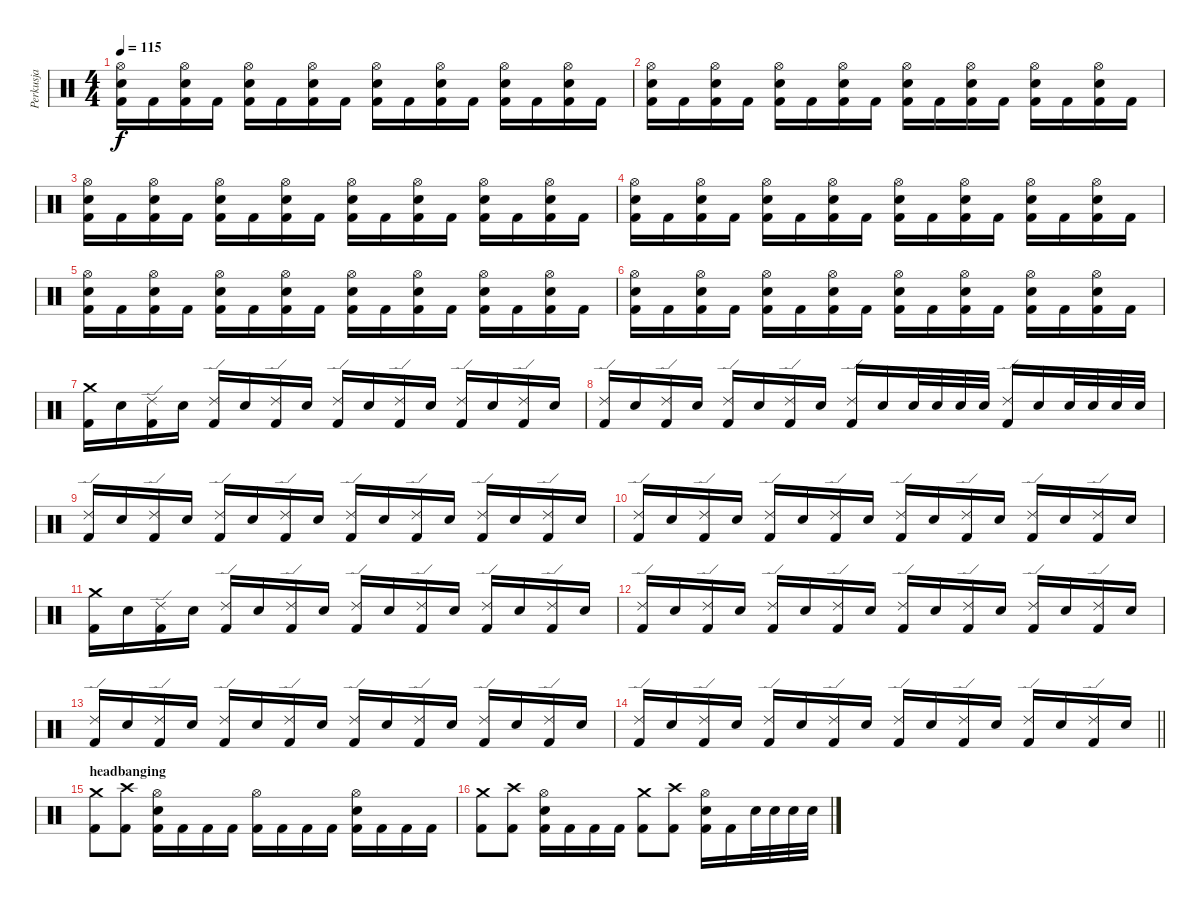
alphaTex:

\track ("Perkusja" "Perkusja") {instrument percussion}
\staff {score}
\articulation defaults
\ts (4 4)
\tempo 115
\clef neutral
\ks c
("Kick (hit) 2" "Snare (hit) 2" "Hi-Hat (open)").16{dy f} "Kick (hit) 2".16 ("Kick (hit) 2" "Hi-Hat (open)" "Snare (hit) 2").16 "Kick (hit) 2".16 ("Kick (hit) 2" "Snare (hit) 2" "Hi-Hat (open)").16 "Kick (hit) 2".16 ("Kick (hit) 2" "Hi-Hat (open)" "Snare (hit) 2").16 "Kick (hit) 2".16 ("Kick (hit) 2" "Snare (hit) 2" "Hi-Hat (open)").16 "Kick (hit) 2".16 ("Kick (hit) 2" "Hi-Hat (open)" "Snare (hit) 2").16 "Kick (hit) 2".16 ("Kick (hit) 2" "Snare (hit) 2" "Hi-Hat (open)").16 "Kick (hit) 2".16 ("Kick (hit) 2" "Hi-Hat (open)" "Snare (hit) 2").16 "Kick (hit) 2".16 |
("Kick (hit) 2" "Snare (hit) 2" "Hi-Hat (open)").16 "Kick (hit) 2".16 ("Kick (hit) 2" "Hi-Hat (open)" "Snare (hit) 2").16 "Kick (hit) 2".16 ("Kick (hit) 2" "Snare (hit) 2" "Hi-Hat (open)").16 "Kick (hit) 2".16 ("Kick (hit) 2" "Hi-Hat (open)" "Snare (hit) 2").16 "Kick (hit) 2".16 ("Kick (hit) 2" "Snare (hit) 2" "Hi-Hat (open)").16 "Kick (hit) 2".16 ("Kick (hit) 2" "Hi-Hat (open)" "Snare (hit) 2").16 "Kick (hit) 2".16 ("Kick (hit) 2" "Snare (hit) 2" "Hi-Hat (open)").16 "Kick (hit) 2".16 ("Kick (hit) 2" "Hi-Hat (open)" "Snare (hit) 2").16 "Kick (hit) 2".16 |
("Kick (hit) 2" "Snare (hit) 2" "Hi-Hat (open)").16 "Kick (hit) 2".16 ("Kick (hit) 2" "Hi-Hat (open)" "Snare (hit) 2").16 "Kick (hit) 2".16 ("Kick (hit) 2" "Snare (hit) 2" "Hi-Hat (open)").16 "Kick (hit) 2".16 ("Kick (hit) 2" "Hi-Hat (open)" "Snare (hit) 2").16 "Kick (hit) 2".16 ("Kick (hit) 2" "Snare (hit) 2" "Hi-Hat (open)").16 "Kick (hit) 2".16 ("Kick (hit) 2" "Hi-Hat (open)" "Snare (hit) 2").16 "Kick (hit) 2".16 ("Kick (hit) 2" "Snare (hit) 2" "Hi-Hat (open)").16 "Kick (hit) 2".16 ("Kick (hit) 2" "Hi-Hat (open)" "Snare (hit) 2").16 "Kick (hit) 2".16 |
("Kick (hit) 2" "Snare (hit) 2" "Hi-Hat (open)").16 "Kick (hit) 2".16 ("Kick (hit) 2" "Hi-Hat (open)" "Snare (hit) 2").16 "Kick (hit) 2".16 ("Kick (hit) 2" "Snare (hit) 2" "Hi-Hat (open)").16 "Kick (hit) 2".16 ("Kick (hit) 2" "Hi-Hat (open)" "Snare (hit) 2").16 "Kick (hit) 2".16 ("Kick (hit) 2" "Snare (hit) 2" "Hi-Hat (open)").16 "Kick (hit) 2".16 ("Kick (hit) 2" "Hi-Hat (open)" "Snare (hit) 2").16 "Kick (hit) 2".16 ("Kick (hit) 2" "Snare (hit) 2" "Hi-Hat (open)").16 "Kick (hit) 2".16 ("Kick (hit) 2" "Hi-Hat (open)" "Snare (hit) 2").16 "Kick (hit) 2".16 |
("Kick (hit) 2" "Snare (hit) 2" "Hi-Hat (open)").16 "Kick (hit) 2".16 ("Kick (hit) 2" "Hi-Hat (open)" "Snare (hit) 2").16 "Kick (hit) 2".16 ("Kick (hit) 2" "Snare (hit) 2" "Hi-Hat (open)").16 "Kick (hit) 2".16 ("Kick (hit) 2" "Hi-Hat (open)" "Snare (hit) 2").16 "Kick (hit) 2".16 ("Kick (hit) 2" "Snare (hit) 2" "Hi-Hat (open)").16 "Kick (hit) 2".16 ("Kick (hit) 2" "Hi-Hat (open)" "Snare (hit) 2").16 "Kick (hit) 2".16 ("Kick (hit) 2" "Snare (hit) 2" "Hi-Hat (open)").16 "Kick (hit) 2".16 ("Kick (hit) 2" "Hi-Hat (open)" "Snare (hit) 2").16 "Kick (hit) 2".16 |
("Kick (hit) 2" "Snare (hit) 2" "Hi-Hat (open)").16 "Kick (hit) 2".16 ("Kick (hit) 2" "Hi-Hat (open)" "Snare (hit) 2").16 "Kick (hit) 2".16 ("Kick (hit) 2" "Snare (hit) 2" "Hi-Hat (open)").16 "Kick (hit) 2".16 ("Kick (hit) 2" "Hi-Hat (open)" "Snare (hit) 2").16 "Kick (hit) 2".16 ("Kick (hit) 2" "Snare (hit) 2" "Hi-Hat (open)").16 "Kick (hit) 2".16 ("Kick (hit) 2" "Hi-Hat (open)" "Snare (hit) 2").16 "Kick (hit) 2".16 ("Kick (hit) 2" "Snare (hit) 2" "Hi-Hat (open)").16 "Kick (hit) 2".16 ("Kick (hit) 2" "Hi-Hat (open)" "Snare (hit) 2").16 "Kick (hit) 2".16 |
("Kick (hit) 2" "Crash medium (hit)").16 "Snare (hit) 2".16 ("Kick (hit) 2" "Ride (edge) 2").16 "Snare (hit) 2".16 ("Kick (hit) 2" "Ride (edge) 2").16 "Snare (hit) 2".16 ("Kick (hit) 2" "Ride (edge) 2").16 "Snare (hit) 2".16 ("Kick (hit) 2" "Ride (edge) 2").16 "Snare (hit) 2".16 ("Kick (hit) 2" "Ride (edge) 2").16 "Snare (hit) 2".16 ("Kick (hit) 2" "Ride (edge) 2").16 "Snare (hit) 2".16 ("Kick (hit) 2" "Ride (edge) 2").16 "Snare (hit) 2".16 |
("Kick (hit) 2" "Ride (edge) 2").16 "Snare (hit) 2".16 ("Kick (hit) 2" "Ride (edge) 2").16 "Snare (hit) 2".16 ("Kick (hit) 2" "Ride (edge) 2").16 "Snare (hit) 2".16 ("Kick (hit) 2" "Ride (edge) 2").16 "Snare (hit) 2".16 ("Kick (hit) 2" "Ride (edge) 2").16 "Snare (hit) 2".16 "Snare (hit) 2".32 "Snare (hit) 2".32 "Snare (hit) 2".32 "Snare (hit) 2".32 ("Kick (hit) 2" "Ride (edge) 2").16 "Snare (hit) 2".16 "Snare (hit) 2".32 "Snare (hit) 2".32 "Snare (hit) 2".32 "Snare (hit) 2".32 |
("Kick (hit) 2" "Ride (edge) 2").16 "Snare (hit) 2".16 ("Kick (hit) 2" "Ride (edge) 2").16 "Snare (hit) 2".16 ("Kick (hit) 2" "Ride (edge) 2").16 "Snare (hit) 2".16 ("Kick (hit) 2" "Ride (edge) 2").16 "Snare (hit) 2".16 ("Kick (hit) 2" "Ride (edge) 2").16 "Snare (hit) 2".16 ("Kick (hit) 2" "Ride (edge) 2").16 "Snare (hit) 2".16 ("Kick (hit) 2" "Ride (edge) 2").16 "Snare (hit) 2".16 ("Kick (hit) 2" "Ride (edge) 2").16 "Snare (hit) 2".16 |
("Kick (hit) 2" "Ride (edge) 2").16 "Snare (hit) 2".16 ("Kick (hit) 2" "Ride (edge) 2").16 "Snare (hit) 2".16 ("Kick (hit) 2" "Ride (edge) 2").16 "Snare (hit) 2".16 ("Kick (hit) 2" "Ride (edge) 2").16 "Snare (hit) 2".16 ("Kick (hit) 2" "Ride (edge) 2").16 "Snare (hit) 2".16 ("Kick (hit) 2" "Ride (edge) 2").16 "Snare (hit) 2".16 ("Kick (hit) 2" "Ride (edge) 2").16 "Snare (hit) 2".16 ("Kick (hit) 2" "Ride (edge) 2").16 "Snare (hit) 2".16 |
("Kick (hit) 2" "Crash medium (hit)").16 "Snare (hit) 2".16 ("Kick (hit) 2" "Ride (edge) 2").16 "Snare (hit) 2".16 ("Kick (hit) 2" "Ride (edge) 2").16 "Snare (hit) 2".16 ("Kick (hit) 2" "Ride (edge) 2").16 "Snare (hit) 2".16 ("Kick (hit) 2" "Ride (edge) 2").16 "Snare (hit) 2".16 ("Kick (hit) 2" "Ride (edge) 2").16 "Snare (hit) 2".16 ("Kick (hit) 2" "Ride (edge) 2").16 "Snare (hit) 2".16 ("Kick (hit) 2" "Ride (edge) 2").16 "Snare (hit) 2".16 |
("Kick (hit) 2" "Ride (edge) 2").16 "Snare (hit) 2".16 ("Kick (hit) 2" "Ride (edge) 2").16 "Snare (hit) 2".16 ("Kick (hit) 2" "Ride (edge) 2").16 "Snare (hit) 2".16 ("Kick (hit) 2" "Ride (edge) 2").16 "Snare (hit) 2".16 ("Kick (hit) 2" "Ride (edge) 2").16 "Snare (hit) 2".16 ("Kick (hit) 2" "Ride (edge) 2").16 "Snare (hit) 2".16 ("Kick (hit) 2" "Ride (edge) 2").16 "Snare (hit) 2".16 ("Kick (hit) 2" "Ride (edge) 2").16 "Snare (hit) 2".16 |
("Kick (hit) 2" "Ride (edge) 2").16 "Snare (hit) 2".16 ("Kick (hit) 2" "Ride (edge) 2").16 "Snare (hit) 2".16 ("Kick (hit) 2" "Ride (edge) 2").16 "Snare (hit) 2".16 ("Kick (hit) 2" "Ride (edge) 2").16 "Snare (hit) 2".16 ("Kick (hit) 2" "Ride (edge) 2").16 "Snare (hit) 2".16 ("Kick (hit) 2" "Ride (edge) 2").16 "Snare (hit) 2".16 ("Kick (hit) 2" "Ride (edge) 2").16 "Snare (hit) 2".16 ("Kick (hit) 2" "Ride (edge) 2").16 "Snare (hit) 2".16 |
\barLineRight lightlight
("Kick (hit) 2" "Ride (edge) 2").16 "Snare (hit) 2".16 ("Kick (hit) 2" "Ride (edge) 2").16 "Snare (hit) 2".16 ("Kick (hit) 2" "Ride (edge) 2").16 "Snare (hit) 2".16 ("Kick (hit) 2" "Ride (edge) 2").16 "Snare (hit) 2".16 ("Kick (hit) 2" "Ride (edge) 2").16 "Snare (hit) 2".16 ("Kick (hit) 2" "Ride (edge) 2").16 "Snare (hit) 2".16 ("Kick (hit) 2" "Ride (edge) 2").16 "Snare (hit) 2".16 ("Kick (hit) 2" "Ride (edge) 2").16 "Snare (hit) 2".16 |
\section ("" "headbanging")
("Crash medium (hit)" "Kick (hit) 2").8 ("Crash high (hit)" "Kick (hit) 2").8 ("Kick (hit) 2" "Snare (hit) 2" "Hi-Hat (open)").16 "Kick (hit) 2".16 "Kick (hit) 2".16 "Kick (hit) 2".16 ("Kick (hit) 2" "Hi-Hat (open)").16 "Kick (hit) 2".16 "Kick (hit) 2".16 "Kick (hit) 2".16 ("Kick (hit) 2" "Snare (hit) 2" "Hi-Hat (open)").16 "Kick (hit) 2".16 "Kick (hit) 2".16 "Kick (hit) 2".16 |
("Crash medium (hit)" "Kick (hit) 2").8 ("Crash high (hit)" "Kick (hit) 2").8 ("Kick (hit) 2" "Snare (hit) 2" "Hi-Hat (open)").16 "Kick (hit) 2".16 "Kick (hit) 2".16 "Kick (hit) 2".16 ("Crash medium (hit)" "Kick (hit) 2").8 ("Crash high (hit)" "Kick (hit) 2").8 ("Kick (hit) 2" "Snare (hit) 2" "Hi-Hat (open)").16 "Kick (hit) 2".16 "Snare (hit) 2".32 "Snare (hit) 2".32 "Snare (hit) 2".32 "Snare (hit) 2".32
